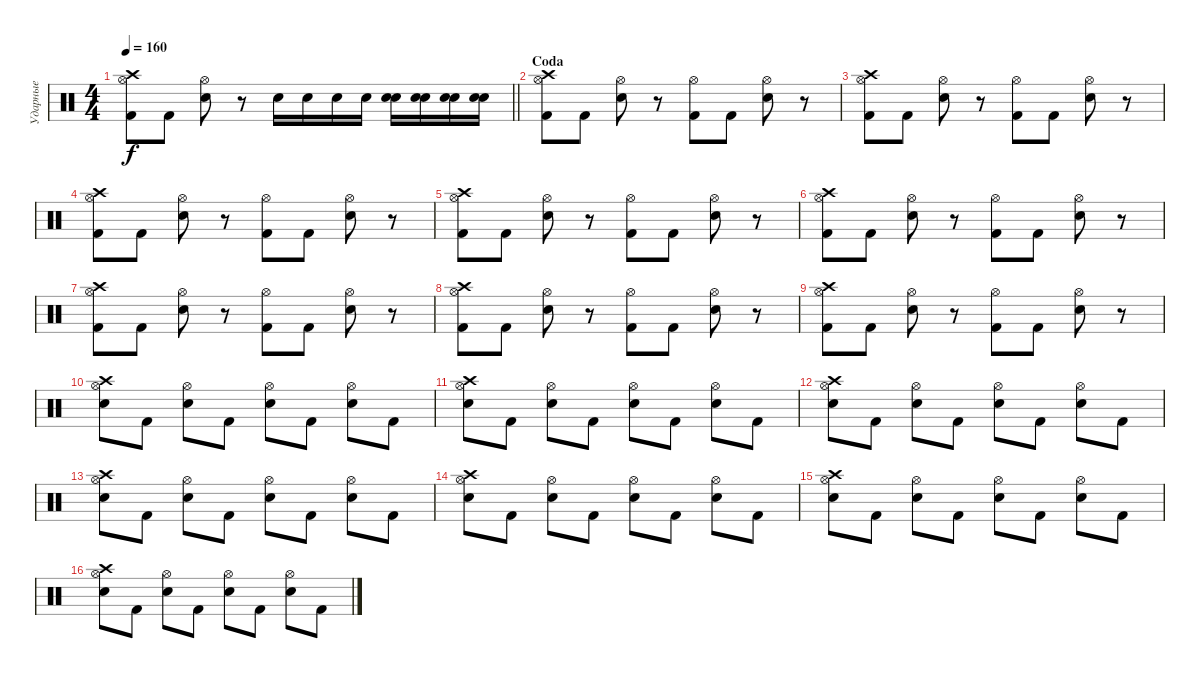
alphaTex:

\track ("Ударные" "Ударные") {instrument percussion}
\staff {score}
\articulation defaults
\ts (4 4)
\tempo 160
\clef neutral
\barLineRight lightlight
\ks c
("Crash high (hit)" "Kick (hit) 2" "Hi-Hat (open)").8{dy f} "Kick (hit) 2".8 ("Snare (hit) 2" "Hi-Hat (open)").8 r.8 "Snare (hit) 2".16 "Snare (hit) 2".16 "Snare (hit) 2".16 "Snare (hit) 2".16 ("Snare (hit) 2" "Snare (hit) 2").16 ("Snare (hit) 2" "Snare (hit) 2").16 ("Snare (hit) 2" "Snare (hit) 2").16 ("Snare (hit) 2" "Snare (hit) 2").16 |
\section ("" "Coda")
("Crash high (hit)" "Kick (hit) 2" "Hi-Hat (open)").8 "Kick (hit) 2".8 ("Snare (hit) 2" "Hi-Hat (open)").8 r.8 ("Kick (hit) 2" "Hi-Hat (open)").8 "Kick (hit) 2".8 ("Snare (hit) 2" "Hi-Hat (open)").8 r.8 |
("Crash high (hit)" "Kick (hit) 2" "Hi-Hat (open)").8 "Kick (hit) 2".8 ("Snare (hit) 2" "Hi-Hat (open)").8 r.8 ("Kick (hit) 2" "Hi-Hat (open)").8 "Kick (hit) 2".8 ("Snare (hit) 2" "Hi-Hat (open)").8 r.8 |
("Crash high (hit)" "Kick (hit) 2" "Hi-Hat (open)").8 "Kick (hit) 2".8 ("Snare (hit) 2" "Hi-Hat (open)").8 r.8 ("Kick (hit) 2" "Hi-Hat (open)").8 "Kick (hit) 2".8 ("Snare (hit) 2" "Hi-Hat (open)").8 r.8 |
("Crash high (hit)" "Kick (hit) 2" "Hi-Hat (open)").8 "Kick (hit) 2".8 ("Snare (hit) 2" "Hi-Hat (open)").8 r.8 ("Kick (hit) 2" "Hi-Hat (open)").8 "Kick (hit) 2".8 ("Snare (hit) 2" "Hi-Hat (open)").8 r.8 |
("Crash high (hit)" "Kick (hit) 2" "Hi-Hat (open)").8 "Kick (hit) 2".8 ("Snare (hit) 2" "Hi-Hat (open)").8 r.8 ("Kick (hit) 2" "Hi-Hat (open)").8 "Kick (hit) 2".8 ("Snare (hit) 2" "Hi-Hat (open)").8 r.8 |
("Crash high (hit)" "Kick (hit) 2" "Hi-Hat (open)").8 "Kick (hit) 2".8 ("Snare (hit) 2" "Hi-Hat (open)").8 r.8 ("Kick (hit) 2" "Hi-Hat (open)").8 "Kick (hit) 2".8 ("Snare (hit) 2" "Hi-Hat (open)").8 r.8 |
("Crash high (hit)" "Kick (hit) 2" "Hi-Hat (open)").8 "Kick (hit) 2".8 ("Snare (hit) 2" "Hi-Hat (open)").8 r.8 ("Kick (hit) 2" "Hi-Hat (open)").8 "Kick (hit) 2".8 ("Snare (hit) 2" "Hi-Hat (open)").8 r.8 |
("Crash high (hit)" "Kick (hit) 2" "Hi-Hat (open)").8 "Kick (hit) 2".8 ("Snare (hit) 2" "Hi-Hat (open)").8 r.8 ("Kick (hit) 2" "Hi-Hat (open)").8 "Kick (hit) 2".8 ("Snare (hit) 2" "Hi-Hat (open)").8 r.8 |
("Crash high (hit)" "Snare (hit) 2" "Hi-Hat (open)").8 "Kick (hit) 2".8 ("Snare (hit) 2" "Hi-Hat (open)").8 "Kick (hit) 2".8 ("Snare (hit) 2" "Hi-Hat (open)").8 "Kick (hit) 2".8 ("Snare (hit) 2" "Hi-Hat (open)").8 "Kick (hit) 2".8 |
("Crash high (hit)" "Snare (hit) 2" "Hi-Hat (open)").8 "Kick (hit) 2".8 ("Snare (hit) 2" "Hi-Hat (open)").8 "Kick (hit) 2".8 ("Snare (hit) 2" "Hi-Hat (open)").8 "Kick (hit) 2".8 ("Snare (hit) 2" "Hi-Hat (open)").8 "Kick (hit) 2".8 |
("Crash high (hit)" "Snare (hit) 2" "Hi-Hat (open)").8 "Kick (hit) 2".8 ("Snare (hit) 2" "Hi-Hat (open)").8 "Kick (hit) 2".8 ("Snare (hit) 2" "Hi-Hat (open)").8 "Kick (hit) 2".8 ("Snare (hit) 2" "Hi-Hat (open)").8 "Kick (hit) 2".8 |
("Crash high (hit)" "Snare (hit) 2" "Hi-Hat (open)").8 "Kick (hit) 2".8 ("Snare (hit) 2" "Hi-Hat (open)").8 "Kick (hit) 2".8 ("Snare (hit) 2" "Hi-Hat (open)").8 "Kick (hit) 2".8 ("Snare (hit) 2" "Hi-Hat (open)").8 "Kick (hit) 2".8 |
("Crash high (hit)" "Snare (hit) 2" "Hi-Hat (open)").8 "Kick (hit) 2".8 ("Snare (hit) 2" "Hi-Hat (open)").8 "Kick (hit) 2".8 ("Snare (hit) 2" "Hi-Hat (open)").8 "Kick (hit) 2".8 ("Snare (hit) 2" "Hi-Hat (open)").8 "Kick (hit) 2".8 |
("Crash high (hit)" "Snare (hit) 2" "Hi-Hat (open)").8 "Kick (hit) 2".8 ("Snare (hit) 2" "Hi-Hat (open)").8 "Kick (hit) 2".8 ("Snare (hit) 2" "Hi-Hat (open)").8 "Kick (hit) 2".8 ("Snare (hit) 2" "Hi-Hat (open)").8 "Kick (hit) 2".8 |
("Crash high (hit)" "Snare (hit) 2" "Hi-Hat (open)").8 "Kick (hit) 2".8 ("Snare (hit) 2" "Hi-Hat (open)").8 "Kick (hit) 2".8 ("Snare (hit) 2" "Hi-Hat (open)").8 "Kick (hit) 2".8 ("Snare (hit) 2" "Hi-Hat (open)").8 "Kick (hit) 2".8
